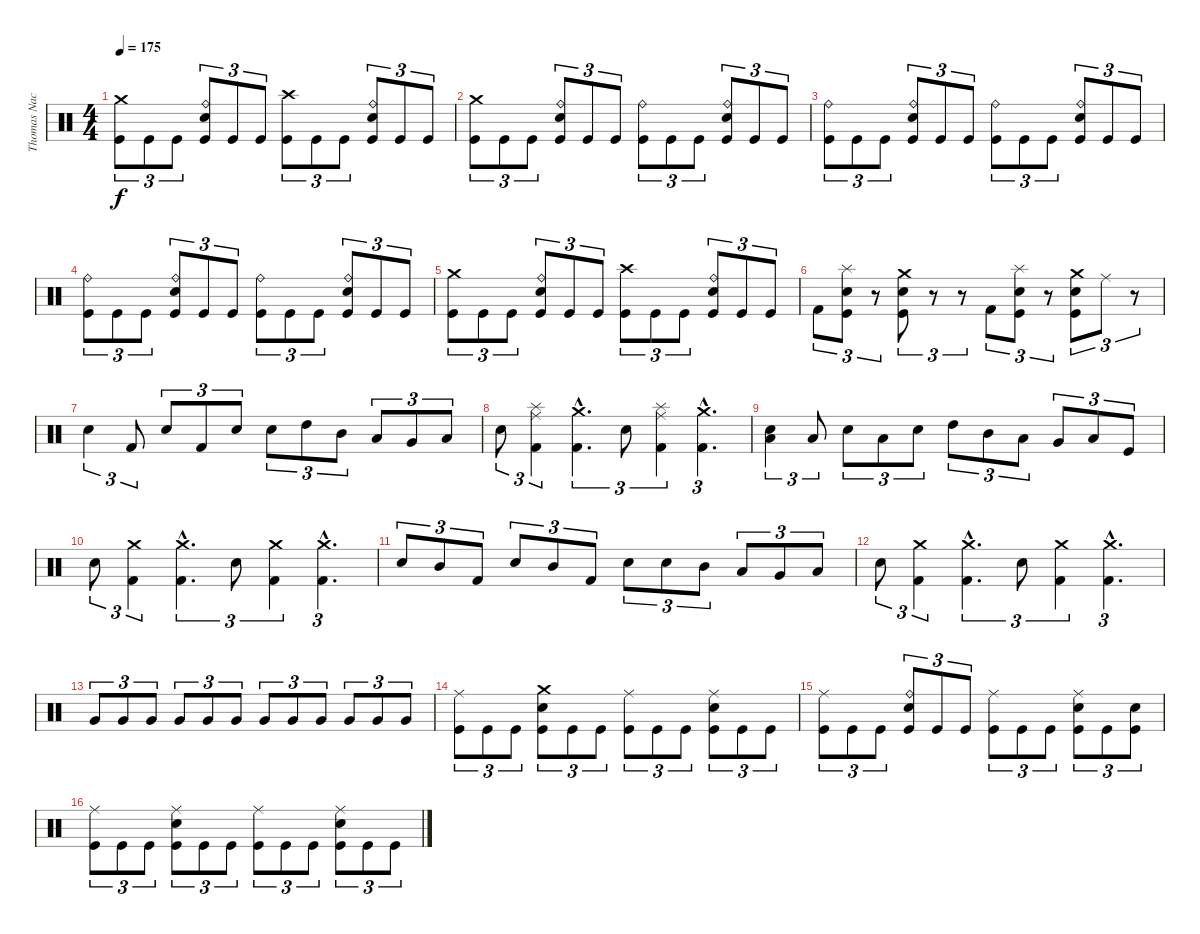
\track ("Thomas Nack" "Thomas Nac") {instrument percussion}
\staff {score}
\articulation defaults
\ts (4 4)
\tempo 175
\clef neutral
\ks c
("Crash medium (hit)" "Kick (hit)").8{tu (3 2) dy f} "Kick (hit)".8{tu (3 2)} "Kick (hit)".8{tu (3 2)} ("Ride (bell)" "Electric Snare (hit)" "Kick (hit)").8{tu (3 2)} "Kick (hit)".8{tu (3 2)} "Kick (hit)".8{tu (3 2)} ("Crash high (hit)" "Kick (hit)").8{tu (3 2)} "Kick (hit)".8{tu (3 2)} "Kick (hit)".8{tu (3 2)} ("Ride (bell)" "Electric Snare (hit)" "Kick (hit)").8{tu (3 2)} "Kick (hit)".8{tu (3 2)} "Kick (hit)".8{tu (3 2)} |
("Crash medium (hit)" "Kick (hit)").8{tu (3 2)} "Kick (hit)".8{tu (3 2)} "Kick (hit)".8{tu (3 2)} ("Ride (bell)" "Electric Snare (hit)" "Kick (hit)").8{tu (3 2)} "Kick (hit)".8{tu (3 2)} "Kick (hit)".8{tu (3 2)} ("Ride (bell)" "Kick (hit)").8{tu (3 2)} "Kick (hit)".8{tu (3 2)} "Kick (hit)".8{tu (3 2)} ("Ride (bell)" "Electric Snare (hit)" "Kick (hit)").8{tu (3 2)} "Kick (hit)".8{tu (3 2)} "Kick (hit)".8{tu (3 2)} |
("Ride (bell)" "Kick (hit)").8{tu (3 2)} "Kick (hit)".8{tu (3 2)} "Kick (hit)".8{tu (3 2)} ("Ride (bell)" "Electric Snare (hit)" "Kick (hit)").8{tu (3 2)} "Kick (hit)".8{tu (3 2)} "Kick (hit)".8{tu (3 2)} ("Ride (bell)" "Kick (hit)").8{tu (3 2)} "Kick (hit)".8{tu (3 2)} "Kick (hit)".8{tu (3 2)} ("Ride (bell)" "Electric Snare (hit)" "Kick (hit)").8{tu (3 2)} "Kick (hit)".8{tu (3 2)} "Kick (hit)".8{tu (3 2)} |
("Ride (bell)" "Kick (hit)").8{tu (3 2)} "Kick (hit)".8{tu (3 2)} "Kick (hit)".8{tu (3 2)} ("Ride (bell)" "Electric Snare (hit)" "Kick (hit)").8{tu (3 2)} "Kick (hit)".8{tu (3 2)} "Kick (hit)".8{tu (3 2)} ("Ride (bell)" "Kick (hit)").8{tu (3 2)} "Kick (hit)".8{tu (3 2)} "Kick (hit)".8{tu (3 2)} ("Ride (bell)" "Electric Snare (hit)" "Kick (hit)").8{tu (3 2)} "Kick (hit)".8{tu (3 2)} "Kick (hit)".8{tu (3 2)} |
("Crash medium (hit)" "Kick (hit)").8{tu (3 2)} "Kick (hit)".8{tu (3 2)} "Kick (hit)".8{tu (3 2)} ("Ride (bell)" "Electric Snare (hit)" "Kick (hit)").8{tu (3 2)} "Kick (hit)".8{tu (3 2)} "Kick (hit)".8{tu (3 2)} ("Crash high (hit)" "Kick (hit)").8{tu (3 2)} "Kick (hit)".8{tu (3 2)} "Kick (hit)".8{tu (3 2)} ("Ride (bell)" "Electric Snare (hit)" "Kick (hit)").8{tu (3 2)} "Kick (hit)".8{tu (3 2)} "Kick (hit)".8{tu (3 2)} |
"Kick (hit) 2".8{tu (3 2)} ("Splash (hit)" "Electric Snare (hit)" "Kick (hit)").8{tu (3 2)} r.8{tu (3 2)} ("Crash medium (hit)" "Electric Snare (hit)" "Kick (hit)").8{tu (3 2)} r.8{tu (3 2)} r.8{tu (3 2)} "Kick (hit) 2".8{tu (3 2)} ("Splash (hit)" "Electric Snare (hit)" "Kick (hit)").8{tu (3 2)} r.8{tu (3 2)} ("Crash medium (hit)" "Electric Snare (hit)" "Kick (hit)").8{tu (3 2)} "Ride (middle)".8{tu (3 2)} r.8{tu (3 2)} |
"Electric Snare (hit)".4{tu (3 2)} "Kick (hit) 2".8{tu (3 2)} "Electric Snare (hit)".8{tu (3 2)} "Kick (hit) 2".8{tu (3 2)} "Electric Snare (hit)".8{tu (3 2)} "Electric Snare (hit)".8{tu (3 2)} "High Tom (hit)".8{tu (3 2)} "Mid Tom (hit)".8{tu (3 2)} "Low Tom (hit)".8{tu (3 2)} "Very Low Tom (hit)".8{tu (3 2)} "Low Floor Tom (hit)".8{tu (3 2)} |
"Electric Snare (hit)".8{tu (3 2)} ("Ride (middle)" "Splash (hit)" "Kick (hit) 2").4{tu (3 2)} ("Crash medium (hit)"{hac} "Kick (hit) 2"{hac}).4{d tu (3 2)} "Electric Snare (hit)".8{tu (3 2)} ("Ride (middle)" "Splash (hit)" "Kick (hit) 2").4{tu (3 2)} ("Crash medium (hit)"{hac} "Kick (hit) 2"{hac}).4{d tu (3 2)} |
("Low Tom (hit)" "Electric Snare (hit)").4{tu (3 2)} "Low Tom (hit)".8{tu (3 2)} "Electric Snare (hit)".8{tu (3 2)} "Low Tom (hit)".8{tu (3 2)} "Electric Snare (hit)".8{tu (3 2)} "High Tom (hit)".8{tu (3 2)} "Mid Tom (hit)".8{tu (3 2)} "Low Tom (hit)".8{tu (3 2)} "Very Low Tom (hit)".8{tu (3 2)} "Low Floor Tom (hit)".8{tu (3 2)} "Kick (hit)".8{tu (3 2)} |
"Electric Snare (hit)".8{tu (3 2)} ("Crash medium (hit)" "Kick (hit) 2").4{tu (3 2)} ("Crash medium (hit)"{hac} "Kick (hit) 2"{hac}).4{d tu (3 2)} "Electric Snare (hit)".8{tu (3 2)} ("Crash medium (hit)" "Kick (hit) 2").4{tu (3 2)} ("Crash medium (hit)"{hac} "Kick (hit) 2"{hac}).4{d tu (3 2)} |
"Electric Snare (hit)".8{tu (3 2)} "Mid Tom (hit)".8{tu (3 2)} "Kick (hit) 2".8{tu (3 2)} "Electric Snare (hit)".8{tu (3 2)} "Mid Tom (hit)".8{tu (3 2)} "Kick (hit) 2".8{tu (3 2)} "Electric Snare (hit)".8{tu (3 2)} "Electric Snare (hit)".8{tu (3 2)} "Mid Tom (hit)".8{tu (3 2)} "Low Tom (hit)".8{tu (3 2)} "Very Low Tom (hit)".8{tu (3 2)} "Low Floor Tom (hit)".8{tu (3 2)} |
"Electric Snare (hit)".8{tu (3 2)} ("Crash medium (hit)" "Kick (hit) 2").4{tu (3 2)} ("Crash medium (hit)"{hac} "Kick (hit) 2"{hac}).4{d tu (3 2)} "Electric Snare (hit)".8{tu (3 2)} ("Crash medium (hit)" "Kick (hit) 2").4{tu (3 2)} ("Crash medium (hit)"{hac} "Kick (hit) 2"{hac}).4{d tu (3 2)} |
"Very Low Tom (hit)".8{tu (3 2)} "Very Low Tom (hit)".8{tu (3 2)} "Very Low Tom (hit)".8{tu (3 2)} "Very Low Tom (hit)".8{tu (3 2)} "Very Low Tom (hit)".8{tu (3 2)} "Very Low Tom (hit)".8{tu (3 2)} "Very Low Tom (hit)".8{tu (3 2)} "Very Low Tom (hit)".8{tu (3 2)} "Very Low Tom (hit)".8{tu (3 2)} "Very Low Tom (hit)".8{tu (3 2)} "Very Low Tom (hit)".8{tu (3 2)} "Very Low Tom (hit)".8{tu (3 2)} |
("Ride (middle)" "Kick (hit)").8{tu (3 2)} "Kick (hit)".8{tu (3 2)} "Kick (hit)".8{tu (3 2)} ("Crash medium (hit)" "Electric Snare (hit)" "Kick (hit)").8{tu (3 2)} "Kick (hit)".8{tu (3 2)} "Kick (hit)".8{tu (3 2)} ("Ride (middle)" "Kick (hit)").8{tu (3 2)} "Kick (hit)".8{tu (3 2)} "Kick (hit)".8{tu (3 2)} ("Ride (middle)" "Electric Snare (hit)" "Kick (hit)").8{tu (3 2)} "Kick (hit)".8{tu (3 2)} "Kick (hit)".8{tu (3 2)} |
("Ride (middle)" "Kick (hit)").8{tu (3 2)} "Kick (hit)".8{tu (3 2)} "Kick (hit)".8{tu (3 2)} ("Ride (bell)" "Electric Snare (hit)" "Kick (hit)").8{tu (3 2)} "Kick (hit)".8{tu (3 2)} "Kick (hit)".8{tu (3 2)} ("Ride (middle)" "Kick (hit)").8{tu (3 2)} "Kick (hit)".8{tu (3 2)} "Kick (hit)".8{tu (3 2)} ("Ride (middle)" "Electric Snare (hit)" "Kick (hit)").8{tu (3 2)} "Kick (hit)".8{tu (3 2)} ("Electric Snare (hit)" "Kick (hit)").8{tu (3 2)} |
("Ride (middle)" "Kick (hit)").8{tu (3 2)} "Kick (hit)".8{tu (3 2)} "Kick (hit)".8{tu (3 2)} ("Ride (middle)" "Electric Snare (hit)" "Kick (hit)").8{tu (3 2)} "Kick (hit)".8{tu (3 2)} "Kick (hit)".8{tu (3 2)} ("Ride (middle)" "Kick (hit)").8{tu (3 2)} "Kick (hit)".8{tu (3 2)} "Kick (hit)".8{tu (3 2)} ("Ride (middle)" "Electric Snare (hit)" "Kick (hit)").8{tu (3 2)} "Kick (hit)".8{tu (3 2)} "Kick (hit)".8{tu (3 2)}
